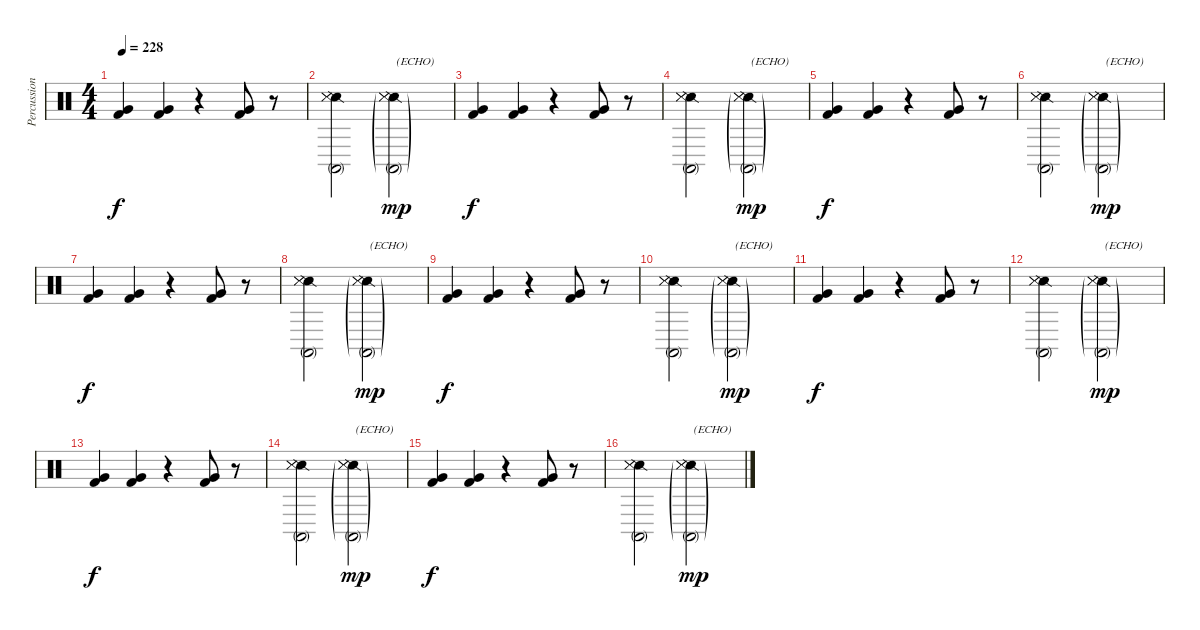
\track ("Percussions" "Percussion") {instrument percussion}
\staff {score}
\articulation defaults
\ts (4 4)
\tempo 228
\clef neutral
\ks c
("Kick (hit) 2" "Very Low Tom (hit)").4{dy f} ("Kick (hit) 2" "Very Low Tom (hit)").4 r.4 ("Kick (hit) 2" "Very Low Tom (hit)").8 r.8 |
("Snare (side stick) 2" "Snare (side stick) 3" "Conga high (mute)" "Metronome (hit)").2 ("Snare (side stick) 2"{g} "Snare (side stick) 3"{g} "Conga high (mute)"{g} "Metronome (hit)"{g}).2{txt "(ECHO)" dy mp} |
("Kick (hit) 2" "Very Low Tom (hit)").4{dy f} ("Kick (hit) 2" "Very Low Tom (hit)").4 r.4 ("Kick (hit) 2" "Very Low Tom (hit)").8 r.8 |
("Snare (side stick) 2" "Snare (side stick) 3" "Conga high (mute)" "Metronome (hit)").2 ("Snare (side stick) 2"{g} "Snare (side stick) 3"{g} "Conga high (mute)"{g} "Metronome (hit)"{g}).2{txt "(ECHO)" dy mp} |
("Kick (hit) 2" "Very Low Tom (hit)").4{dy f} ("Kick (hit) 2" "Very Low Tom (hit)").4 r.4 ("Kick (hit) 2" "Very Low Tom (hit)").8 r.8 |
("Snare (side stick) 2" "Snare (side stick) 3" "Conga high (mute)" "Metronome (hit)").2 ("Snare (side stick) 2"{g} "Snare (side stick) 3"{g} "Conga high (mute)"{g} "Metronome (hit)"{g}).2{txt "(ECHO)" dy mp} |
("Kick (hit) 2" "Very Low Tom (hit)").4{dy f} ("Kick (hit) 2" "Very Low Tom (hit)").4 r.4 ("Kick (hit) 2" "Very Low Tom (hit)").8 r.8 |
("Snare (side stick) 2" "Snare (side stick) 3" "Conga high (mute)" "Metronome (hit)").2 ("Snare (side stick) 2"{g} "Snare (side stick) 3"{g} "Conga high (mute)"{g} "Metronome (hit)"{g}).2{txt "(ECHO)" dy mp} |
("Kick (hit) 2" "Very Low Tom (hit)").4{dy f} ("Kick (hit) 2" "Very Low Tom (hit)").4 r.4 ("Kick (hit) 2" "Very Low Tom (hit)").8 r.8 |
("Snare (side stick) 2" "Snare (side stick) 3" "Conga high (mute)" "Metronome (hit)").2 ("Snare (side stick) 2"{g} "Snare (side stick) 3"{g} "Conga high (mute)"{g} "Metronome (hit)"{g}).2{txt "(ECHO)" dy mp} |
("Kick (hit) 2" "Very Low Tom (hit)").4{dy f} ("Kick (hit) 2" "Very Low Tom (hit)").4 r.4 ("Kick (hit) 2" "Very Low Tom (hit)").8 r.8 |
("Snare (side stick) 2" "Snare (side stick) 3" "Conga high (mute)" "Metronome (hit)").2 ("Snare (side stick) 2"{g} "Snare (side stick) 3"{g} "Conga high (mute)"{g} "Metronome (hit)"{g}).2{txt "(ECHO)" dy mp} |
("Kick (hit) 2" "Very Low Tom (hit)").4{dy f} ("Kick (hit) 2" "Very Low Tom (hit)").4 r.4 ("Kick (hit) 2" "Very Low Tom (hit)").8 r.8 |
("Snare (side stick) 2" "Snare (side stick) 3" "Conga high (mute)" "Metronome (hit)").2 ("Snare (side stick) 2"{g} "Snare (side stick) 3"{g} "Conga high (mute)"{g} "Metronome (hit)"{g}).2{txt "(ECHO)" dy mp} |
("Kick (hit) 2" "Very Low Tom (hit)").4{dy f} ("Kick (hit) 2" "Very Low Tom (hit)").4 r.4 ("Kick (hit) 2" "Very Low Tom (hit)").8 r.8 |
("Snare (side stick) 2" "Snare (side stick) 3" "Conga high (mute)" "Metronome (hit)").2 ("Snare (side stick) 2"{g} "Snare (side stick) 3"{g} "Conga high (mute)"{g} "Metronome (hit)"{g}).2{txt "(ECHO)" dy mp}
